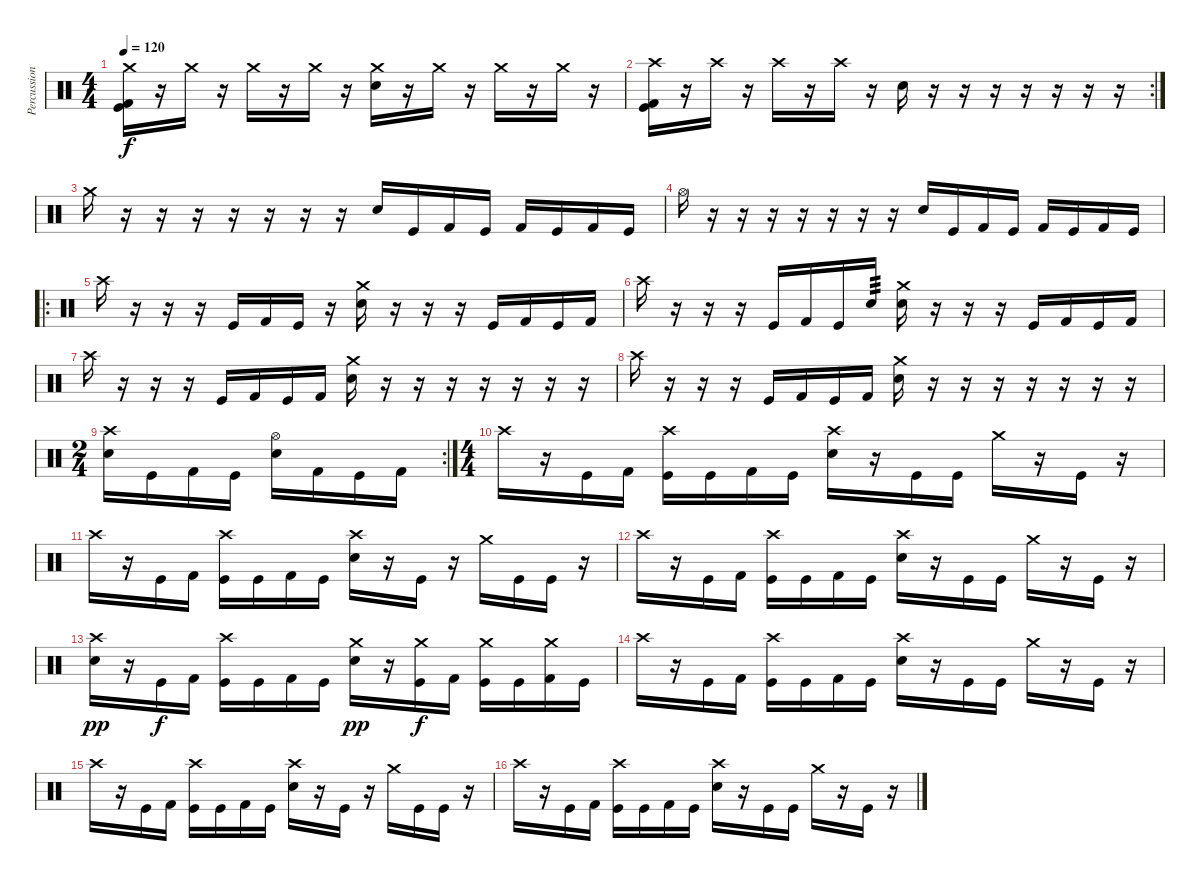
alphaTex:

\track ("Percussion" "Percussion") {instrument percussion}
\staff {score}
\articulation defaults
\ts (4 4)
\tempo 120
\clef neutral
\ks c
("Crash medium (hit)" "Kick (hit)" "Kick (hit) 2").16{dy f} r.16 "Crash medium (hit)".16 r.16 "Crash medium (hit)".16 r.16 "Crash medium (hit)".16 r.16 ("Crash medium (hit)" "Snare (hit) 2").16 r.16 "Crash medium (hit)".16 r.16 "Crash medium (hit)".16 r.16 "Crash medium (hit)".16 r.16 |
\rc 2
("Crash high (hit)" "Kick (hit) 2" "Kick (hit)").16 r.16 "Crash high (hit)".16 r.16 "Crash high (hit)".16 r.16 "Crash high (hit)".16 r.16 "Snare (hit) 2".16 r.16 r.16 r.16 r.16 r.16 r.16 r.16 |
"Crash medium (hit)".16 r.16 r.16 r.16 r.16 r.16 r.16 r.16 "Snare (hit) 2".16 "Kick (hit)".16 "Kick (hit) 2".16 "Kick (hit)".16 "Kick (hit) 2".16 "Kick (hit)".16 "Kick (hit) 2".16 "Kick (hit)".16 |
"Hi-Hat (open)".16 r.16 r.16 r.16 r.16 r.16 r.16 r.16 "Snare (hit) 2".16 "Kick (hit)".16 "Kick (hit) 2".16 "Kick (hit)".16 "Kick (hit) 2".16 "Kick (hit)".16 "Kick (hit) 2".16 "Kick (hit)".16 |
\ro "Crash high (hit)".16
r.16 r.16 r.16 "Kick (hit)".16 "Kick (hit) 2".16 "Kick (hit)".16 r.16 ("Crash medium (hit)" "Snare (hit) 2").16 r.16 r.16 r.16 "Kick (hit)".16 "Kick (hit) 2".16 "Kick (hit)".16 "Kick (hit) 2".16 |
"Crash high (hit)".16 r.16 r.16 r.16 "Kick (hit)".16 "Kick (hit) 2".16 "Kick (hit)".16 "Snare (hit) 2".16{tp 3} ("Crash medium (hit)" "Snare (hit) 2").16 r.16 r.16 r.16 "Kick (hit)".16 "Kick (hit) 2".16 "Kick (hit)".16 "Kick (hit) 2".16 |
"Crash high (hit)".16 r.16 r.16 r.16 "Kick (hit)".16 "Kick (hit) 2".16 "Kick (hit)".16 "Kick (hit) 2".16 ("Crash medium (hit)" "Snare (hit) 2").16 r.16 r.16 r.16 r.16 r.16 r.16 r.16 |
"Crash high (hit)".16 r.16 r.16 r.16 "Kick (hit)".16 "Kick (hit) 2".16 "Kick (hit)".16 "Kick (hit) 2".16 ("Crash medium (hit)" "Snare (hit) 2").16 r.16 r.16 r.16 r.16 r.16 r.16 r.16 |
\rc 2
\ts (2 4)
("Crash high (hit)" "Snare (hit) 2").16 "Kick (hit)".16 "Kick (hit) 2".16 "Kick (hit)".16 ("Hi-Hat (open)" "Snare (hit) 2").16 "Kick (hit) 2".16 "Kick (hit)".16 "Kick (hit) 2".16 |
\ts (4 4)
"Crash high (hit)".16 r.16 "Kick (hit)".16 "Kick (hit) 2".16 ("Crash high (hit)" "Kick (hit)").16 "Kick (hit)".16 "Kick (hit) 2".16 "Kick (hit)".16 ("Crash high (hit)" "Snare (hit) 2").16 r.16 "Kick (hit)".16 "Kick (hit)".16 "Crash medium (hit)".16 r.16 "Kick (hit)".16 r.16 |
"Crash high (hit)".16 r.16 "Kick (hit)".16 "Kick (hit) 2".16 ("Crash high (hit)" "Kick (hit)").16 "Kick (hit)".16 "Kick (hit) 2".16 "Kick (hit)".16 ("Crash high (hit)" "Snare (hit) 2").16 r.16 "Kick (hit)".16 r.16 "Crash medium (hit)".16 "Kick (hit)".16 "Kick (hit)".16 r.16 |
"Crash high (hit)".16 r.16 "Kick (hit)".16 "Kick (hit) 2".16 ("Crash high (hit)" "Kick (hit)").16 "Kick (hit)".16 "Kick (hit) 2".16 "Kick (hit)".16 ("Crash high (hit)" "Snare (hit) 2").16 r.16 "Kick (hit)".16 "Kick (hit)".16 "Crash medium (hit)".16 r.16 "Kick (hit)".16 r.16 |
("Crash high (hit)" "Snare (hit) 2").16{dy pp} r.16 "Kick (hit)".16{dy f} "Kick (hit) 2".16 ("Crash high (hit)" "Kick (hit)").16 "Kick (hit)".16 "Kick (hit) 2".16 "Kick (hit)".16 ("Crash medium (hit)" "Snare (hit) 2").16{dy pp} r.16 ("Crash medium (hit)" "Kick (hit)").16{dy f} "Kick (hit) 2".16 ("Crash medium (hit)" "Kick (hit)").16 "Kick (hit)".16 ("Crash medium (hit)" "Kick (hit) 2").16 "Kick (hit)".16 |
"Crash high (hit)".16 r.16 "Kick (hit)".16 "Kick (hit) 2".16 ("Crash high (hit)" "Kick (hit)").16 "Kick (hit)".16 "Kick (hit) 2".16 "Kick (hit)".16 ("Crash high (hit)" "Snare (hit) 2").16 r.16 "Kick (hit)".16 "Kick (hit)".16 "Crash medium (hit)".16 r.16 "Kick (hit)".16 r.16 |
"Crash high (hit)".16 r.16 "Kick (hit)".16 "Kick (hit) 2".16 ("Crash high (hit)" "Kick (hit)").16 "Kick (hit)".16 "Kick (hit) 2".16 "Kick (hit)".16 ("Crash high (hit)" "Snare (hit) 2").16 r.16 "Kick (hit)".16 r.16 "Crash medium (hit)".16 "Kick (hit)".16 "Kick (hit)".16 r.16 |
"Crash high (hit)".16 r.16 "Kick (hit)".16 "Kick (hit) 2".16 ("Crash high (hit)" "Kick (hit)").16 "Kick (hit)".16 "Kick (hit) 2".16 "Kick (hit)".16 ("Crash high (hit)" "Snare (hit) 2").16 r.16 "Kick (hit)".16 "Kick (hit)".16 "Crash medium (hit)".16 r.16 "Kick (hit)".16 r.16
